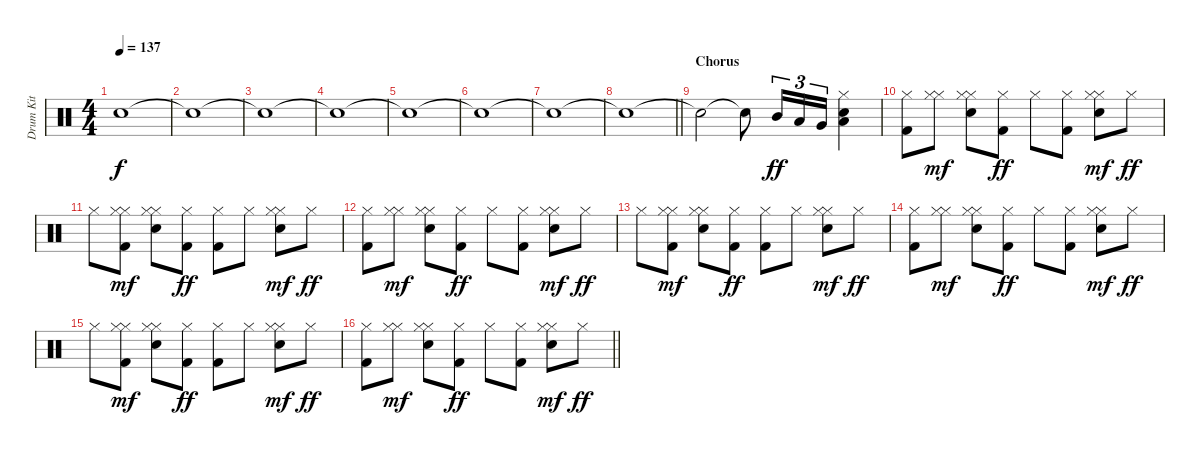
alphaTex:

\track ("Drum Kit" "Drum Kit") {instrument percussion}
\staff {score}
\articulation defaults
\ts (4 4)
\tempo 137
\clef neutral
\ks c "Snare (hit)"{t}.1{dy f}
|
"Snare (hit)"{t}.1 |
"Snare (hit)"{t}.1 |
"Snare (hit)"{t}.1 |
"Snare (hit)"{t}.1 |
"Snare (hit)"{t}.1 |
"Snare (hit)"{t}.1 |
\barLineRight lightlight "Snare (hit)"{t}.1
|
\section ("" "Chorus")
"Snare (hit)"{t}.2 "Snare (hit)"{t}.8 "Mid Tom (hit)".16{tu (3 2) dy ff} "Low Tom (hit)".16{tu (3 2)} "Very Low Tom (hit)".16{tu (3 2)} ("Hand Clap (hit)" "Low Floor Tom (hit)" "Hi-Hat (closed)").4 |
("Kick (hit) 2" "Hi-Hat (closed)").8 ("Hi-Hat (closed)" "Hi-Hat (closed)").8{dy mf} ("Hand Clap (hit)" "Hi-Hat (closed)" "Hi-Hat (closed)").8 ("Kick (hit) 2" "Hi-Hat (closed)").8{dy ff} "Hi-Hat (closed)".8 ("Kick (hit) 2" "Hi-Hat (closed)").8 ("Hand Clap (hit)" "Hi-Hat (closed)" "Hi-Hat (closed)").8{dy mf} "Hi-Hat (closed)".8{dy ff} |
"Hi-Hat (closed)".8 ("Kick (hit) 2" "Hi-Hat (closed)" "Hi-Hat (closed)").8{dy mf} ("Hand Clap (hit)" "Hi-Hat (closed)" "Hi-Hat (closed)").8 ("Kick (hit) 2" "Hi-Hat (closed)").8{dy ff} ("Kick (hit) 2" "Hi-Hat (closed)").8 "Hi-Hat (closed)".8 ("Hand Clap (hit)" "Hi-Hat (closed)" "Hi-Hat (closed)").8{dy mf} "Hi-Hat (closed)".8{dy ff} |
("Kick (hit) 2" "Hi-Hat (closed)").8 ("Hi-Hat (closed)" "Hi-Hat (closed)").8{dy mf} ("Hand Clap (hit)" "Hi-Hat (closed)" "Hi-Hat (closed)").8 ("Kick (hit) 2" "Hi-Hat (closed)").8{dy ff} "Hi-Hat (closed)".8 ("Kick (hit) 2" "Hi-Hat (closed)").8 ("Hand Clap (hit)" "Hi-Hat (closed)" "Hi-Hat (closed)").8{dy mf} "Hi-Hat (closed)".8{dy ff} |
"Hi-Hat (closed)".8 ("Kick (hit) 2" "Hi-Hat (closed)" "Hi-Hat (closed)").8{dy mf} ("Hand Clap (hit)" "Hi-Hat (closed)" "Hi-Hat (closed)").8 ("Kick (hit) 2" "Hi-Hat (closed)").8{dy ff} ("Kick (hit) 2" "Hi-Hat (closed)").8 "Hi-Hat (closed)".8 ("Hand Clap (hit)" "Hi-Hat (closed)" "Hi-Hat (closed)").8{dy mf} "Hi-Hat (closed)".8{dy ff} |
("Kick (hit) 2" "Hi-Hat (closed)").8 ("Hi-Hat (closed)" "Hi-Hat (closed)").8{dy mf} ("Hand Clap (hit)" "Hi-Hat (closed)" "Hi-Hat (closed)").8 ("Kick (hit) 2" "Hi-Hat (closed)").8{dy ff} "Hi-Hat (closed)".8 ("Kick (hit) 2" "Hi-Hat (closed)").8 ("Hand Clap (hit)" "Hi-Hat (closed)" "Hi-Hat (closed)").8{dy mf} "Hi-Hat (closed)".8{dy ff} |
"Hi-Hat (closed)".8 ("Kick (hit) 2" "Hi-Hat (closed)" "Hi-Hat (closed)").8{dy mf} ("Hand Clap (hit)" "Hi-Hat (closed)" "Hi-Hat (closed)").8 ("Kick (hit) 2" "Hi-Hat (closed)").8{dy ff} ("Kick (hit) 2" "Hi-Hat (closed)").8 "Hi-Hat (closed)".8 ("Hand Clap (hit)" "Hi-Hat (closed)" "Hi-Hat (closed)").8{dy mf} "Hi-Hat (closed)".8{dy ff} |
\barLineRight lightlight
("Kick (hit) 2" "Hi-Hat (closed)").8 ("Hi-Hat (closed)" "Hi-Hat (closed)").8{dy mf} ("Hand Clap (hit)" "Hi-Hat (closed)" "Hi-Hat (closed)").8 ("Kick (hit) 2" "Hi-Hat (closed)").8{dy ff} "Hi-Hat (closed)".8 ("Kick (hit) 2" "Hi-Hat (closed)").8 ("Hand Clap (hit)" "Hi-Hat (closed)" "Hi-Hat (closed)").8{dy mf} "Hi-Hat (closed)".8{dy ff}
